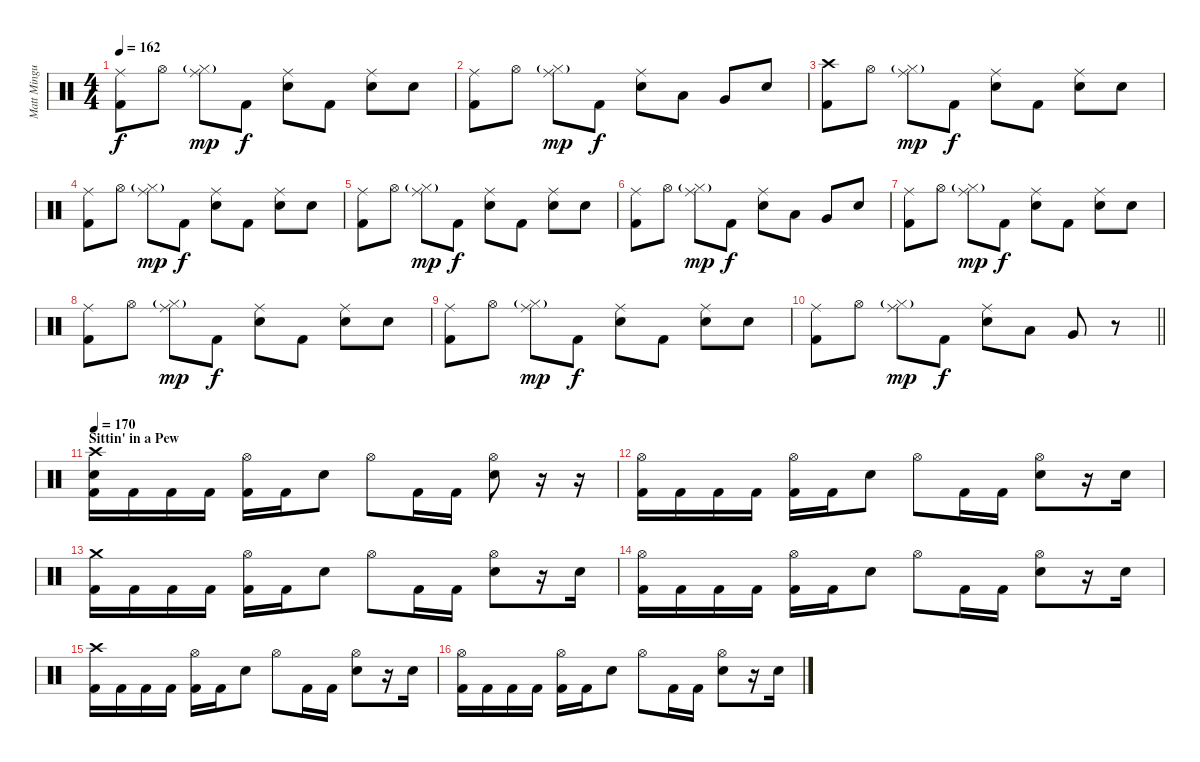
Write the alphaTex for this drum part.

\track ("Matt Mingus" "Matt Mingu") {instrument percussion}
\staff {score}
\articulation defaults
\ts (4 4)
\tempo 162
\clef neutral
\ks c
("Ride (middle)" "Kick (hit) 2").8{dy f} "Hi-Hat (open)".8 ("Hi-Hat (closed)"{g} "Ride (middle)").8{dy mp} "Kick (hit) 2".8{dy f} ("Ride (middle)" "Electric Snare (hit)").8 "Kick (hit) 2".8 ("Ride (middle)" "Electric Snare (hit)").8 "Electric Snare (hit)".8 |
("Ride (middle)" "Kick (hit) 2").8 "Hi-Hat (open)".8 ("Hi-Hat (closed)"{g} "Ride (middle)").8{dy mp} "Kick (hit) 2".8{dy f} ("Ride (middle)" "Electric Snare (hit)").8 "Low Tom (hit)".8 "Very Low Tom (hit)".8 "Electric Snare (hit)".8 |
("Crash high (hit)" "Kick (hit) 2").8 "Hi-Hat (open)".8 ("Hi-Hat (closed)"{g} "Ride (middle)").8{dy mp} "Kick (hit) 2".8{dy f} ("Ride (middle)" "Electric Snare (hit)").8 "Kick (hit) 2".8 ("Ride (middle)" "Electric Snare (hit)").8 "Electric Snare (hit)".8 |
("Ride (middle)" "Kick (hit) 2").8 "Hi-Hat (open)".8 ("Hi-Hat (closed)"{g} "Ride (middle)").8{dy mp} "Kick (hit) 2".8{dy f} ("Ride (middle)" "Electric Snare (hit)").8 "Kick (hit) 2".8 ("Ride (middle)" "Electric Snare (hit)").8 "Electric Snare (hit)".8 |
("Ride (middle)" "Kick (hit) 2").8 "Hi-Hat (open)".8 ("Hi-Hat (closed)"{g} "Ride (middle)").8{dy mp} "Kick (hit) 2".8{dy f} ("Ride (middle)" "Electric Snare (hit)").8 "Kick (hit) 2".8 ("Ride (middle)" "Electric Snare (hit)").8 "Electric Snare (hit)".8 |
("Ride (middle)" "Kick (hit) 2").8 "Hi-Hat (open)".8 ("Hi-Hat (closed)"{g} "Ride (middle)").8{dy mp} "Kick (hit) 2".8{dy f} ("Ride (middle)" "Electric Snare (hit)").8 "Low Tom (hit)".8 "Very Low Tom (hit)".8 "Electric Snare (hit)".8 |
("Ride (middle)" "Kick (hit) 2").8 "Hi-Hat (open)".8 ("Hi-Hat (closed)"{g} "Ride (middle)").8{dy mp} "Kick (hit) 2".8{dy f} ("Ride (middle)" "Electric Snare (hit)").8 "Kick (hit) 2".8 ("Ride (middle)" "Electric Snare (hit)").8 "Electric Snare (hit)".8 |
("Ride (middle)" "Kick (hit) 2").8 "Hi-Hat (open)".8 ("Hi-Hat (closed)"{g} "Ride (middle)").8{dy mp} "Kick (hit) 2".8{dy f} ("Ride (middle)" "Electric Snare (hit)").8 "Kick (hit) 2".8 ("Ride (middle)" "Electric Snare (hit)").8 "Electric Snare (hit)".8 |
("Ride (middle)" "Kick (hit) 2").8 "Hi-Hat (open)".8 ("Hi-Hat (closed)"{g} "Ride (middle)").8{dy mp} "Kick (hit) 2".8{dy f} ("Ride (middle)" "Electric Snare (hit)").8 "Kick (hit) 2".8 ("Ride (middle)" "Electric Snare (hit)").8 "Electric Snare (hit)".8 |
\barLineRight lightlight
("Ride (middle)" "Kick (hit) 2").8 "Hi-Hat (open)".8 ("Hi-Hat (closed)"{g} "Ride (middle)").8{dy mp} "Kick (hit) 2".8{dy f} ("Ride (middle)" "Electric Snare (hit)").8 "Low Tom (hit)".8 "Very Low Tom (hit)".8 r.8 |
\section ("" "Sittin' in a Pew")
\tempo 170
("Crash high (hit)" "Electric Snare (hit)" "Kick (hit) 2").16 "Kick (hit) 2".16 "Kick (hit) 2".16 "Kick (hit) 2".16 ("Hi-Hat (open)" "Kick (hit) 2").16 "Kick (hit) 2".16 "Electric Snare (hit)".8 "Hi-Hat (open)".8 "Kick (hit) 2".16 "Kick (hit) 2".16 ("Hi-Hat (open)" "Electric Snare (hit)").8 r.16 r.16 |
("Hi-Hat (open)" "Kick (hit) 2").16 "Kick (hit) 2".16 "Kick (hit) 2".16 "Kick (hit) 2".16 ("Hi-Hat (open)" "Kick (hit) 2").16 "Kick (hit) 2".16 "Electric Snare (hit)".8 "Hi-Hat (open)".8 "Kick (hit) 2".16 "Kick (hit) 2".16 ("Hi-Hat (open)" "Electric Snare (hit)").8 r.16 "Electric Snare (hit)".16 |
("Crash medium (hit)" "Kick (hit) 2").16 "Kick (hit) 2".16 "Kick (hit) 2".16 "Kick (hit) 2".16 ("Hi-Hat (open)" "Kick (hit) 2").16 "Kick (hit) 2".16 "Electric Snare (hit)".8 "Hi-Hat (open)".8 "Kick (hit) 2".16 "Kick (hit) 2".16 ("Hi-Hat (open)" "Electric Snare (hit)").8 r.16 "Electric Snare (hit)".16 |
("Hi-Hat (open)" "Kick (hit) 2").16 "Kick (hit) 2".16 "Kick (hit) 2".16 "Kick (hit) 2".16 ("Hi-Hat (open)" "Kick (hit) 2").16 "Kick (hit) 2".16 "Electric Snare (hit)".8 "Hi-Hat (open)".8 "Kick (hit) 2".16 "Kick (hit) 2".16 ("Hi-Hat (open)" "Electric Snare (hit)").8 r.16 "Electric Snare (hit)".16 |
("Crash high (hit)" "Kick (hit) 2").16 "Kick (hit) 2".16 "Kick (hit) 2".16 "Kick (hit) 2".16 ("Hi-Hat (open)" "Kick (hit) 2").16 "Kick (hit) 2".16 "Electric Snare (hit)".8 "Hi-Hat (open)".8 "Kick (hit) 2".16 "Kick (hit) 2".16 ("Hi-Hat (open)" "Electric Snare (hit)").8 r.16 "Electric Snare (hit)".16 |
("Hi-Hat (open)" "Kick (hit) 2").16 "Kick (hit) 2".16 "Kick (hit) 2".16 "Kick (hit) 2".16 ("Hi-Hat (open)" "Kick (hit) 2").16 "Kick (hit) 2".16 "Electric Snare (hit)".8 "Hi-Hat (open)".8 "Kick (hit) 2".16 "Kick (hit) 2".16 ("Hi-Hat (open)" "Electric Snare (hit)").8 r.16 "Electric Snare (hit)".16
